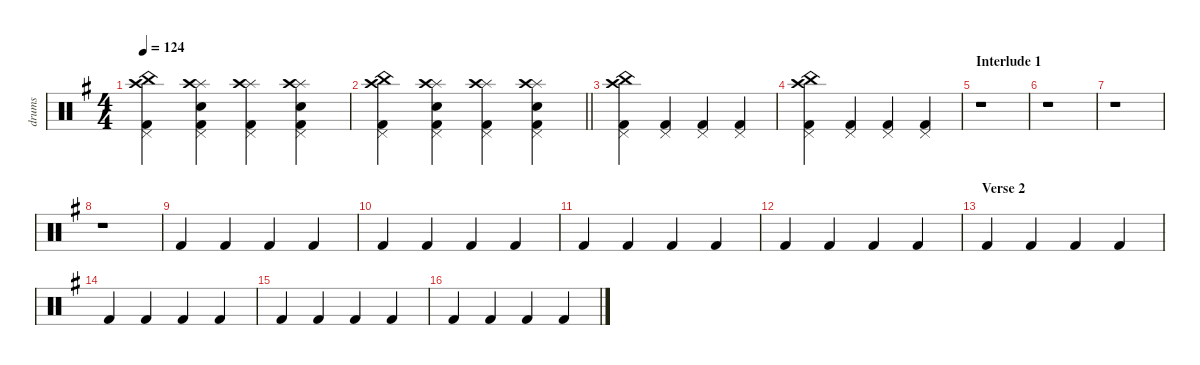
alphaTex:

\defaultSystemsLayout 4
\hideDynamics
\bracketExtendMode nobrackets
\otherSystemsTrackNameOrientation horizontal
\track ("drums" "drums") {instrument percussion}
\staff {score}
\articulation defaults
\ts (4 4)
\tempo 124
\clef neutral
\scale
1.07945
\ks eminor
("Kick (hit) 2"{acc forcenatural} "China (hit)"{acc forcenatural} "Crash high (hit)"{acc forcenatural} "Pedal Hi-Hat (hit)"{acc forcenatural}).4{dy mf beam Down} ("Kick (hit) 2"{acc forcenatural} "Pedal Hi-Hat (hit)"{acc forcenatural} "Snare (hit) 2"{acc forcenatural} "Splash (hit)"{acc forcenatural} "Crash high (hit)"{acc forcenatural}).4{beam Down} ("Kick (hit) 2"{acc forcenatural} "Pedal Hi-Hat (hit)"{acc forcenatural} "Splash (hit)"{acc forcenatural} "Crash high (hit)"{acc forcenatural}).4{beam Down} ("Kick (hit) 2"{acc forcenatural} "Pedal Hi-Hat (hit)"{acc forcenatural} "Snare (hit) 2"{acc forcenatural} "Splash (hit)"{acc forcenatural} "Crash high (hit)"{acc forcenatural}).4{beam Down} |
\scale
0.973518
\barLineRight lightlight
("Kick (hit) 2"{acc forcenatural} "China (hit)"{acc forcenatural} "Crash high (hit)"{acc forcenatural} "Pedal Hi-Hat (hit)"{acc forcenatural}).4{beam Down} ("Kick (hit) 2"{acc forcenatural} "Pedal Hi-Hat (hit)"{acc forcenatural} "Snare (hit) 2"{acc forcenatural} "Splash (hit)"{acc forcenatural} "Crash high (hit)"{acc forcenatural}).4{beam Down} ("Kick (hit) 2"{acc forcenatural} "Pedal Hi-Hat (hit)"{acc forcenatural} "Splash (hit)"{acc forcenatural} "Crash high (hit)"{acc forcenatural}).4{beam Down} ("Kick (hit) 2"{acc forcenatural} "Pedal Hi-Hat (hit)"{acc forcenatural} "Snare (hit) 2"{acc forcenatural} "Splash (hit)"{acc forcenatural} "Crash high (hit)"{acc forcenatural}).4{beam Down} |
\scale
0.973518 ("Kick (hit) 2"{acc forcenatural} "China (hit)"{acc forcenatural} "Crash high (hit)"{acc forcenatural} "Pedal Hi-Hat (hit)"{acc forcenatural}).4{beam Down} ("Kick (hit) 2"{acc forcenatural} "Pedal Hi-Hat (hit)"{acc forcenatural}).4{beam Up} ("Kick (hit) 2"{acc forcenatural} "Pedal Hi-Hat (hit)"{acc forcenatural}).4{beam Up} ("Kick (hit) 2"{acc forcenatural} "Pedal Hi-Hat (hit)"{acc forcenatural}).4{beam Up} |
\scale
0.973518 ("Kick (hit) 2"{acc forcenatural} "China (hit)"{acc forcenatural} "Crash high (hit)"{acc forcenatural} "Pedal Hi-Hat (hit)"{acc forcenatural}).4{beam Down} ("Kick (hit) 2"{acc forcenatural} "Pedal Hi-Hat (hit)"{acc forcenatural}).4{beam Up} ("Kick (hit) 2"{acc forcenatural} "Pedal Hi-Hat (hit)"{acc forcenatural}).4{beam Up} ("Kick (hit) 2"{acc forcenatural} "Pedal Hi-Hat (hit)"{acc forcenatural}).4{beam Up} |
\section ("" "Interlude 1")
\scale
1.07945 r.1{beam Down} |
\scale
0.973518 r.1{beam Down} |
\scale
0.973518 r.1{beam Down} |
\scale
0.973518 r.1{beam Down} |
\scale
1.07945 "Kick (hit) 2"{acc forcenatural}.4{beam Up} "Kick (hit) 2"{acc forcenatural}.4{beam Up} "Kick (hit) 2"{acc forcenatural}.4{beam Up} "Kick (hit) 2"{acc forcenatural}.4{beam Up} |
\scale
0.973518 "Kick (hit) 2"{acc forcenatural}.4{beam Up} "Kick (hit) 2"{acc forcenatural}.4{beam Up} "Kick (hit) 2"{acc forcenatural}.4{beam Up} "Kick (hit) 2"{acc forcenatural}.4{beam Up} |
\scale
0.973518 "Kick (hit) 2"{acc forcenatural}.4{beam Up} "Kick (hit) 2"{acc forcenatural}.4{beam Up} "Kick (hit) 2"{acc forcenatural}.4{beam Up} "Kick (hit) 2"{acc forcenatural}.4{beam Up} |
\scale
0.973518 "Kick (hit) 2"{acc forcenatural}.4{beam Up} "Kick (hit) 2"{acc forcenatural}.4{beam Up} "Kick (hit) 2"{acc forcenatural}.4{beam Up} "Kick (hit) 2"{acc forcenatural}.4{beam Up} |
\section ("" "Verse 2")
\scale
1.07945 "Kick (hit) 2"{acc forcenatural}.4{beam Up} "Kick (hit) 2"{acc forcenatural}.4{beam Up} "Kick (hit) 2"{acc forcenatural}.4{beam Up} "Kick (hit) 2"{acc forcenatural}.4{beam Up} |
\scale
0.973518 "Kick (hit) 2"{acc forcenatural}.4{beam Up} "Kick (hit) 2"{acc forcenatural}.4{beam Up} "Kick (hit) 2"{acc forcenatural}.4{beam Up} "Kick (hit) 2"{acc forcenatural}.4{beam Up} |
\scale
0.973518 "Kick (hit) 2"{acc forcenatural}.4{beam Up} "Kick (hit) 2"{acc forcenatural}.4{beam Up} "Kick (hit) 2"{acc forcenatural}.4{beam Up} "Kick (hit) 2"{acc forcenatural}.4{beam Up} |
\scale
0.973518 "Kick (hit) 2"{acc forcenatural}.4{beam Up} "Kick (hit) 2"{acc forcenatural}.4{beam Up} "Kick (hit) 2"{acc forcenatural}.4{beam Up} "Kick (hit) 2"{acc forcenatural}.4{beam Up}
